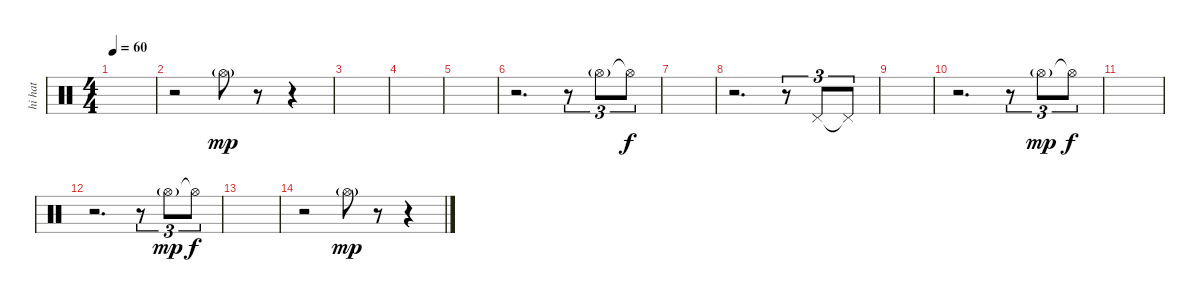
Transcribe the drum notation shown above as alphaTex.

\track ("hi hat" "hi hat") {instrument percussion}
\staff {score}
\articulation defaults
\ts (4 4)
\tempo 60
\clef neutral
\ks c
|
r.2 "Hi-Hat (open)"{g}.8{dy mp} r.8 r.4 |
|
|
|
r.2{d} r.8{tu (3 2)} "Hi-Hat (open)"{g}.8{tu (3 2)} "Hi-Hat (open)"{t}.8{tu (3 2) dy f} |
|
r.2{d} r.8{tu (3 2)} "Pedal Hi-Hat (hit)".8{tu (3 2)} "Pedal Hi-Hat (hit)"{t}.8{tu (3 2)} |
|
r.2{d} r.8{tu (3 2)} "Hi-Hat (open)"{g}.8{tu (3 2) dy mp} "Hi-Hat (open)"{t}.8{tu (3 2) dy f} |
|
r.2{d} r.8{tu (3 2)} "Hi-Hat (open)"{g}.8{tu (3 2) dy mp} "Hi-Hat (open)"{t}.8{tu (3 2) dy f} |
|
r.2 "Hi-Hat (open)"{g}.8{dy mp} r.8 r.4
